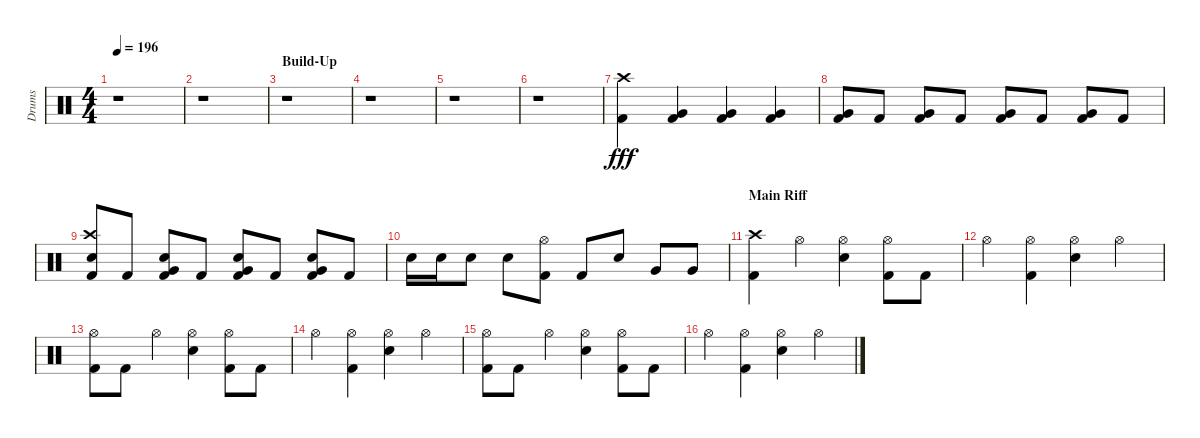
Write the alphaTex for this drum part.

\track ("Drums" "Drums") {instrument percussion}
\staff {score}
\articulation defaults
\ts (4 4)
\tempo 196
\clef neutral
\ks aminor
r.1{dy fff} |
r.1 |
\section ("" "Build-Up")
r.1 |
r.1 |
r.1 |
r.1 |
("Kick (hit) 2" "Crash high (hit)").4 ("Kick (hit) 2" "Very Low Tom (hit)").4 ("Kick (hit) 2" "Very Low Tom (hit)").4 ("Kick (hit) 2" "Very Low Tom (hit)").4 |
("Kick (hit) 2" "Very Low Tom (hit)").8 "Kick (hit) 2".8 ("Kick (hit) 2" "Very Low Tom (hit)").8 "Kick (hit) 2".8 ("Kick (hit) 2" "Very Low Tom (hit)").8 "Kick (hit) 2".8 ("Kick (hit) 2" "Very Low Tom (hit)").8 "Kick (hit) 2".8 |
("Kick (hit) 2" "Snare (hit) 2" "Crash high (hit)").8 "Kick (hit) 2".8 ("Snare (hit) 2" "Kick (hit) 2" "Very Low Tom (hit)").8 "Kick (hit) 2".8 ("Kick (hit) 2" "Snare (hit) 2" "Very Low Tom (hit)").8 "Kick (hit) 2".8 ("Kick (hit) 2" "Snare (hit) 2" "Very Low Tom (hit)").8 "Kick (hit) 2".8 |
"Snare (hit) 2".16 "Snare (hit) 2".16 "Snare (hit) 2".8 "Snare (hit) 2".8 ("Kick (hit) 2" "Hi-Hat (open)").8 "Kick (hit) 2".8 "Snare (hit) 2".8 "Very Low Tom (hit)".8 "Very Low Tom (hit)".8 |
\section ("" "Main Riff")
("Kick (hit) 2" "Crash high (hit)").4 "Hi-Hat (open)".4 ("Snare (hit) 2" "Hi-Hat (open)").4 ("Kick (hit) 2" "Hi-Hat (open)").8 "Kick (hit) 2".8 |
"Hi-Hat (open)".4 ("Kick (hit) 2" "Hi-Hat (open)").4 ("Snare (hit) 2" "Hi-Hat (open)").4 "Hi-Hat (open)".4 |
("Kick (hit) 2" "Hi-Hat (open)").8 "Kick (hit) 2".8 "Hi-Hat (open)".4 ("Snare (hit) 2" "Hi-Hat (open)").4 ("Kick (hit) 2" "Hi-Hat (open)").8 "Kick (hit) 2".8 |
"Hi-Hat (open)".4 ("Kick (hit) 2" "Hi-Hat (open)").4 ("Snare (hit) 2" "Hi-Hat (open)").4 "Hi-Hat (open)".4 |
("Kick (hit) 2" "Hi-Hat (open)").8 "Kick (hit) 2".8 "Hi-Hat (open)".4 ("Snare (hit) 2" "Hi-Hat (open)").4 ("Kick (hit) 2" "Hi-Hat (open)").8 "Kick (hit) 2".8 |
"Hi-Hat (open)".4 ("Kick (hit) 2" "Hi-Hat (open)").4 ("Snare (hit) 2" "Hi-Hat (open)").4 "Hi-Hat (open)".4
